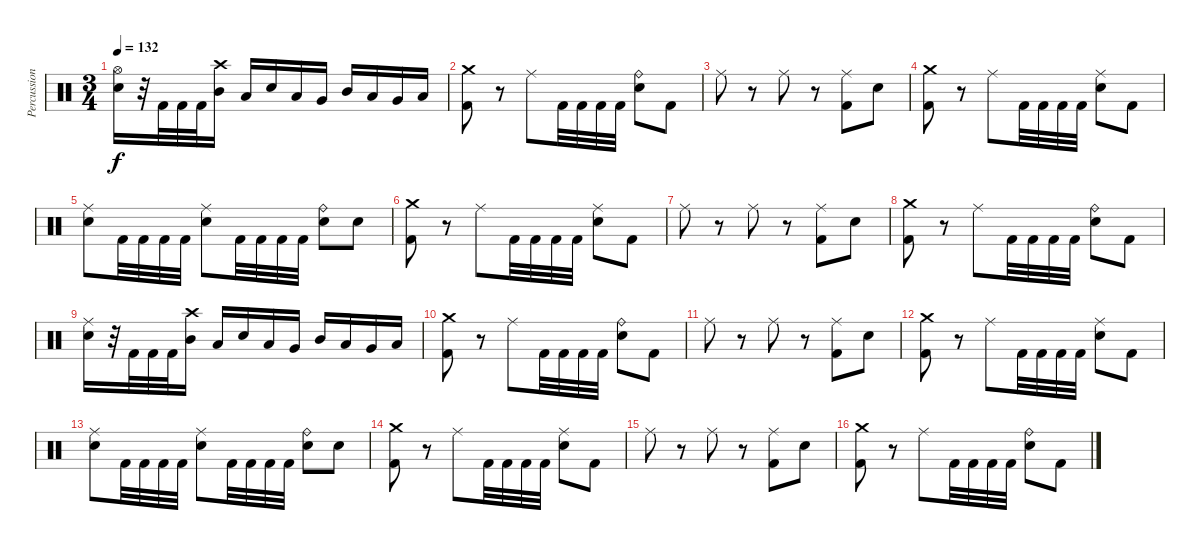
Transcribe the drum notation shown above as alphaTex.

\track ("Percussion" "Percussion") {instrument percussion}
\staff {score}
\articulation defaults
\ts (3 4)
\tempo 132
\clef neutral
\ks c
("Hi-Hat (open)" "Electric Snare (hit)").16{dy f} r.32 "Kick (hit) 2".32 "Kick (hit) 2".32 "Kick (hit) 2".32 ("Crash high (hit)" "Mid Tom (hit)").16 "Low Tom (hit)".16 "Electric Snare (hit)".16 "Low Tom (hit)".16 "Very Low Tom (hit)".16 "Mid Tom (hit)".16 "Low Tom (hit)".16 "Very Low Tom (hit)".16 "Low Floor Tom (hit)".16 |
("Crash medium (hit)" "Kick (hit) 2").8 r.8 "Ride (middle)".8 "Kick (hit) 2".32 "Kick (hit) 2".32 "Kick (hit) 2".32 "Kick (hit) 2".32 ("Ride (bell)" "Electric Snare (hit)").8 "Kick (hit) 2".8 |
"Ride (middle)".8 r.8 "Ride (middle)".8 r.8 ("Ride (middle)" "Kick (hit) 2").8 "Electric Snare (hit)".8 |
("Crash medium (hit)" "Kick (hit) 2").8 r.8 "Ride (middle)".8 "Kick (hit) 2".32 "Kick (hit) 2".32 "Kick (hit) 2".32 "Kick (hit) 2".32 ("Ride (middle)" "Electric Snare (hit)").8 "Kick (hit) 2".8 |
("Ride (middle)" "Electric Snare (hit)").8 "Kick (hit) 2".32 "Kick (hit) 2".32 "Kick (hit) 2".32 "Kick (hit) 2".32 ("Ride (middle)" "Electric Snare (hit)").8 "Kick (hit) 2".32 "Kick (hit) 2".32 "Kick (hit) 2".32 "Kick (hit) 2".32 ("Ride (bell)" "Electric Snare (hit)").8 "Electric Snare (hit)".8 |
("Crash medium (hit)" "Kick (hit) 2").8 r.8 "Ride (middle)".8 "Kick (hit) 2".32 "Kick (hit) 2".32 "Kick (hit) 2".32 "Kick (hit) 2".32 ("Ride (middle)" "Electric Snare (hit)").8 "Kick (hit) 2".8 |
"Ride (middle)".8 r.8 "Ride (middle)".8 r.8 ("Ride (middle)" "Kick (hit) 2").8 "Electric Snare (hit)".8 |
("Crash medium (hit)" "Kick (hit) 2").8 r.8 "Ride (middle)".8 "Kick (hit) 2".32 "Kick (hit) 2".32 "Kick (hit) 2".32 "Kick (hit) 2".32 ("Ride (bell)" "Electric Snare (hit)").8 "Kick (hit) 2".8 |
("Ride (middle)" "Electric Snare (hit)").16 r.32 "Kick (hit) 2".32 "Kick (hit) 2".32 "Kick (hit) 2".32 ("Crash high (hit)" "Mid Tom (hit)").16 "Low Tom (hit)".16 "Electric Snare (hit)".16 "Low Tom (hit)".16 "Very Low Tom (hit)".16 "Mid Tom (hit)".16 "Low Tom (hit)".16 "Very Low Tom (hit)".16 "Low Floor Tom (hit)".16 |
("Crash medium (hit)" "Kick (hit) 2").8 r.8 "Ride (middle)".8 "Kick (hit) 2".32 "Kick (hit) 2".32 "Kick (hit) 2".32 "Kick (hit) 2".32 ("Ride (bell)" "Electric Snare (hit)").8 "Kick (hit) 2".8 |
"Ride (middle)".8 r.8 "Ride (middle)".8 r.8 ("Ride (middle)" "Kick (hit) 2").8 "Electric Snare (hit)".8 |
("Crash medium (hit)" "Kick (hit) 2").8 r.8 "Ride (middle)".8 "Kick (hit) 2".32 "Kick (hit) 2".32 "Kick (hit) 2".32 "Kick (hit) 2".32 ("Ride (middle)" "Electric Snare (hit)").8 "Kick (hit) 2".8 |
("Ride (middle)" "Electric Snare (hit)").8 "Kick (hit) 2".32 "Kick (hit) 2".32 "Kick (hit) 2".32 "Kick (hit) 2".32 ("Ride (middle)" "Electric Snare (hit)").8 "Kick (hit) 2".32 "Kick (hit) 2".32 "Kick (hit) 2".32 "Kick (hit) 2".32 ("Ride (bell)" "Electric Snare (hit)").8 "Electric Snare (hit)".8 |
("Crash medium (hit)" "Kick (hit) 2").8 r.8 "Ride (middle)".8 "Kick (hit) 2".32 "Kick (hit) 2".32 "Kick (hit) 2".32 "Kick (hit) 2".32 ("Ride (middle)" "Electric Snare (hit)").8 "Kick (hit) 2".8 |
"Ride (middle)".8 r.8 "Ride (middle)".8 r.8 ("Ride (middle)" "Kick (hit) 2").8 "Electric Snare (hit)".8 |
("Crash medium (hit)" "Kick (hit) 2").8 r.8 "Ride (middle)".8 "Kick (hit) 2".32 "Kick (hit) 2".32 "Kick (hit) 2".32 "Kick (hit) 2".32 ("Ride (bell)" "Electric Snare (hit)").8 "Kick (hit) 2".8
